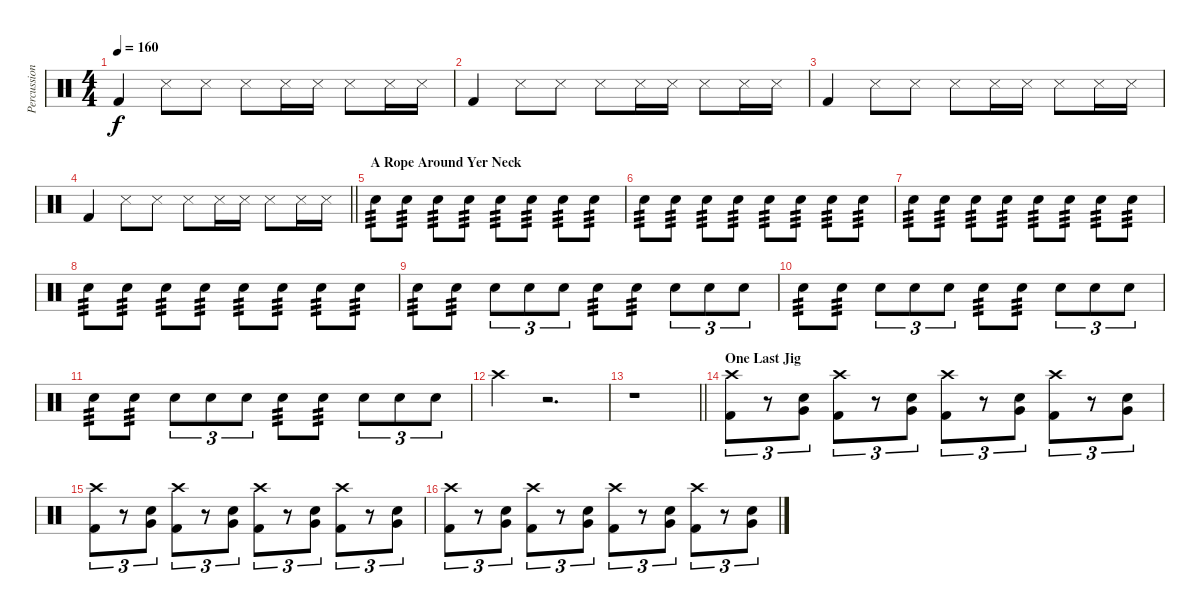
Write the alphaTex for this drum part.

\track ("Percussion" "Percussion") {instrument percussion}
\staff {score}
\articulation defaults
\ts (4 4)
\tempo 160
\clef neutral
\ks c "Kick (hit) 2".4{dy f} "Snare (side stick) 3".8 "Snare (side stick) 3".8 "Snare (side stick) 3".8 "Snare (side stick) 3".16 "Snare (side stick) 3".16 "Snare (side stick) 3".8 "Snare (side stick) 3".16 "Snare (side stick) 3".16
|
"Kick (hit) 2".4 "Snare (side stick) 3".8 "Snare (side stick) 3".8 "Snare (side stick) 3".8 "Snare (side stick) 3".16 "Snare (side stick) 3".16 "Snare (side stick) 3".8 "Snare (side stick) 3".16 "Snare (side stick) 3".16 |
"Kick (hit) 2".4 "Snare (side stick) 3".8 "Snare (side stick) 3".8 "Snare (side stick) 3".8 "Snare (side stick) 3".16 "Snare (side stick) 3".16 "Snare (side stick) 3".8 "Snare (side stick) 3".16 "Snare (side stick) 3".16 |
\barLineRight lightlight "Kick (hit) 2".4 "Snare (side stick) 3".8 "Snare (side stick) 3".8 "Snare (side stick) 3".8 "Snare (side stick) 3".16 "Snare (side stick) 3".16 "Snare (side stick) 3".8 "Snare (side stick) 3".16 "Snare (side stick) 3".16
|
\section ("" "A Rope Around Yer Neck")
"Snare (hit) 2".8{tp 3} "Snare (hit) 2".8{tp 3} "Snare (hit) 2".8{tp 3} "Snare (hit) 2".8{tp 3} "Snare (hit) 2".8{tp 3} "Snare (hit) 2".8{tp 3} "Snare (hit) 2".8{tp 3} "Snare (hit) 2".8{tp 3} |
"Snare (hit) 2".8{tp 3} "Snare (hit) 2".8{tp 3} "Snare (hit) 2".8{tp 3} "Snare (hit) 2".8{tp 3} "Snare (hit) 2".8{tp 3} "Snare (hit) 2".8{tp 3} "Snare (hit) 2".8{tp 3} "Snare (hit) 2".8{tp 3} |
"Snare (hit) 2".8{tp 3} "Snare (hit) 2".8{tp 3} "Snare (hit) 2".8{tp 3} "Snare (hit) 2".8{tp 3} "Snare (hit) 2".8{tp 3} "Snare (hit) 2".8{tp 3} "Snare (hit) 2".8{tp 3} "Snare (hit) 2".8{tp 3} |
"Snare (hit) 2".8{tp 3} "Snare (hit) 2".8{tp 3} "Snare (hit) 2".8{tp 3} "Snare (hit) 2".8{tp 3} "Snare (hit) 2".8{tp 3} "Snare (hit) 2".8{tp 3} "Snare (hit) 2".8{tp 3} "Snare (hit) 2".8{tp 3} |
"Snare (hit) 2".8{tp 3} "Snare (hit) 2".8{tp 3} "Snare (hit) 2".8{tu (3 2)} "Snare (hit) 2".8{tu (3 2)} "Snare (hit) 2".8{tu (3 2)} "Snare (hit) 2".8{tp 3} "Snare (hit) 2".8{tp 3} "Snare (hit) 2".8{tu (3 2)} "Snare (hit) 2".8{tu (3 2)} "Snare (hit) 2".8{tu (3 2)} |
"Snare (hit) 2".8{tp 3} "Snare (hit) 2".8{tp 3} "Snare (hit) 2".8{tu (3 2)} "Snare (hit) 2".8{tu (3 2)} "Snare (hit) 2".8{tu (3 2)} "Snare (hit) 2".8{tp 3} "Snare (hit) 2".8{tp 3} "Snare (hit) 2".8{tu (3 2)} "Snare (hit) 2".8{tu (3 2)} "Snare (hit) 2".8{tu (3 2)} |
"Snare (hit) 2".8{tp 3} "Snare (hit) 2".8{tp 3} "Snare (hit) 2".8{tu (3 2)} "Snare (hit) 2".8{tu (3 2)} "Snare (hit) 2".8{tu (3 2)} "Snare (hit) 2".8{tp 3} "Snare (hit) 2".8{tp 3} "Snare (hit) 2".8{tu (3 2)} "Snare (hit) 2".8{tu (3 2)} "Snare (hit) 2".8{tu (3 2)} |
"Crash high (hit)".4 r.2{d} |
\barLineRight lightlight
r.1 |
\section ("" "One Last Jig")
("Crash high (hit)" "Kick (hit) 2").8{tu (3 2)} r.8{tu (3 2)} ("Snare (hit) 2" "Very Low Tom (hit)").8{tu (3 2)} ("Crash high (hit)" "Kick (hit) 2").8{tu (3 2)} r.8{tu (3 2)} ("Snare (hit) 2" "Very Low Tom (hit)").8{tu (3 2)} ("Crash high (hit)" "Kick (hit) 2").8{tu (3 2)} r.8{tu (3 2)} ("Snare (hit) 2" "Very Low Tom (hit)").8{tu (3 2)} ("Crash high (hit)" "Kick (hit) 2").8{tu (3 2)} r.8{tu (3 2)} ("Snare (hit) 2" "Very Low Tom (hit)").8{tu (3 2)} |
("Crash high (hit)" "Kick (hit) 2").8{tu (3 2)} r.8{tu (3 2)} ("Snare (hit) 2" "Very Low Tom (hit)").8{tu (3 2)} ("Crash high (hit)" "Kick (hit) 2").8{tu (3 2)} r.8{tu (3 2)} ("Snare (hit) 2" "Very Low Tom (hit)").8{tu (3 2)} ("Crash high (hit)" "Kick (hit) 2").8{tu (3 2)} r.8{tu (3 2)} ("Snare (hit) 2" "Very Low Tom (hit)").8{tu (3 2)} ("Crash high (hit)" "Kick (hit) 2").8{tu (3 2)} r.8{tu (3 2)} ("Snare (hit) 2" "Very Low Tom (hit)").8{tu (3 2)} |
("Crash high (hit)" "Kick (hit) 2").8{tu (3 2)} r.8{tu (3 2)} ("Snare (hit) 2" "Very Low Tom (hit)").8{tu (3 2)} ("Crash high (hit)" "Kick (hit) 2").8{tu (3 2)} r.8{tu (3 2)} ("Snare (hit) 2" "Very Low Tom (hit)").8{tu (3 2)} ("Crash high (hit)" "Kick (hit) 2").8{tu (3 2)} r.8{tu (3 2)} ("Snare (hit) 2" "Very Low Tom (hit)").8{tu (3 2)} ("Crash high (hit)" "Kick (hit) 2").8{tu (3 2)} r.8{tu (3 2)} ("Snare (hit) 2" "Very Low Tom (hit)").8{tu (3 2)}
